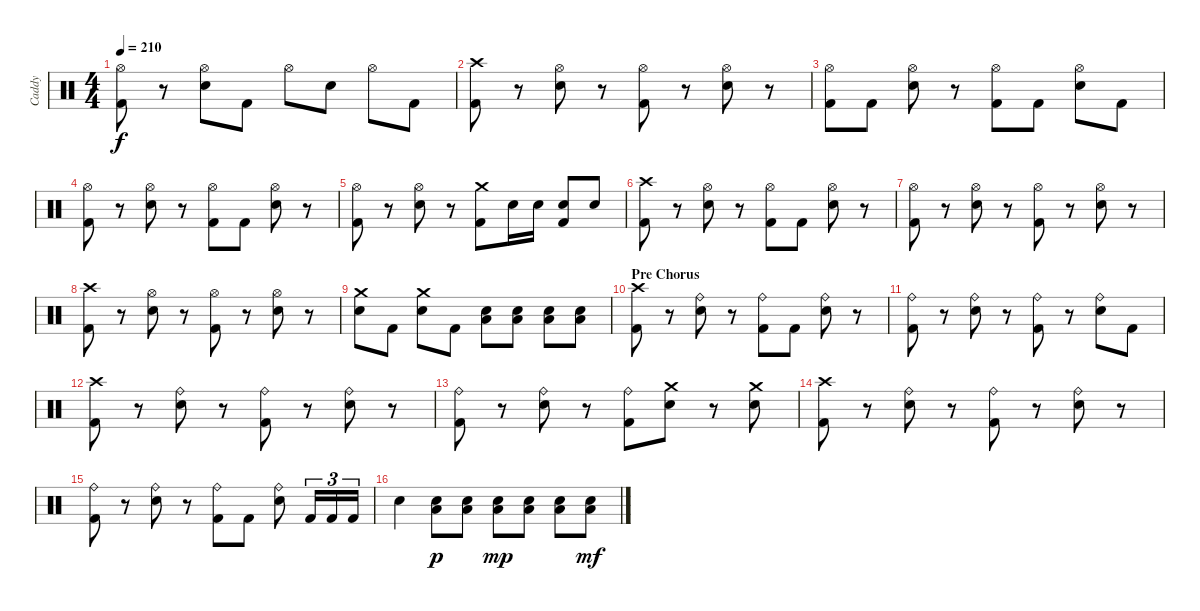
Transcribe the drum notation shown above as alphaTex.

\track ("Caddy" "Caddy") {instrument percussion}
\staff {score}
\articulation defaults
\ts (4 4)
\tempo 210
\clef neutral
\ks c
("Hi-Hat (open)" "Kick (hit) 2").8{dy f} r.8 ("Hi-Hat (open)" "Electric Snare (hit)").8 "Kick (hit) 2".8 "Hi-Hat (open)".8 "Electric Snare (hit)".8 "Hi-Hat (open)".8 "Kick (hit) 2".8 |
("Crash high (hit)" "Kick (hit) 2").8 r.8 ("Hi-Hat (open)" "Electric Snare (hit)").8 r.8 ("Hi-Hat (open)" "Kick (hit) 2").8 r.8 ("Hi-Hat (open)" "Electric Snare (hit)").8 r.8 |
("Hi-Hat (open)" "Kick (hit) 2").8 "Kick (hit) 2".8 ("Hi-Hat (open)" "Electric Snare (hit)").8 r.8 ("Hi-Hat (open)" "Kick (hit) 2").8 "Kick (hit) 2".8 ("Hi-Hat (open)" "Electric Snare (hit)").8 "Kick (hit) 2".8 |
("Hi-Hat (open)" "Kick (hit) 2").8 r.8 ("Hi-Hat (open)" "Electric Snare (hit)").8 r.8 ("Hi-Hat (open)" "Kick (hit) 2").8 "Kick (hit) 2".8 ("Hi-Hat (open)" "Electric Snare (hit)").8 r.8 |
("Hi-Hat (open)" "Kick (hit) 2").8 r.8 ("Hi-Hat (open)" "Electric Snare (hit)").8 r.8 ("Crash medium (hit)" "Kick (hit) 2").8 "Electric Snare (hit)".16 "Electric Snare (hit)".16 ("Electric Snare (hit)" "Kick (hit) 2").8 "Electric Snare (hit)".8 |
("Crash high (hit)" "Kick (hit) 2").8 r.8 ("Hi-Hat (open)" "Electric Snare (hit)").8 r.8 ("Hi-Hat (open)" "Kick (hit) 2").8 "Kick (hit) 2".8 ("Hi-Hat (open)" "Electric Snare (hit)").8 r.8 |
("Hi-Hat (open)" "Kick (hit) 2").8 r.8 ("Hi-Hat (open)" "Electric Snare (hit)").8 r.8 ("Hi-Hat (open)" "Kick (hit) 2").8 r.8 ("Hi-Hat (open)" "Electric Snare (hit)").8 r.8 |
("Crash high (hit)" "Kick (hit) 2").8 r.8 ("Hi-Hat (open)" "Electric Snare (hit)").8 r.8 ("Hi-Hat (open)" "Kick (hit) 2").8 r.8 ("Hi-Hat (open)" "Electric Snare (hit)").8 r.8 |
("Crash medium (hit)" "Electric Snare (hit)").8 "Kick (hit) 2".8 ("Crash medium (hit)" "Electric Snare (hit)").8 "Kick (hit) 2".8 ("Electric Snare (hit)" "Low Floor Tom (hit)").8 ("Electric Snare (hit)" "Low Floor Tom (hit)").8 ("Electric Snare (hit)" "Low Floor Tom (hit)").8 ("Electric Snare (hit)" "Low Floor Tom (hit)").8 |
\section ("" "Pre Chorus")
("Crash high (hit)" "Kick (hit) 2").8 r.8 ("Ride (bell)" "Electric Snare (hit)").8 r.8 ("Ride (bell)" "Kick (hit) 2").8 "Kick (hit) 2".8 ("Ride (bell)" "Electric Snare (hit)").8 r.8 |
("Ride (bell)" "Kick (hit) 2").8 r.8 ("Ride (bell)" "Electric Snare (hit)").8 r.8 ("Ride (bell)" "Kick (hit) 2").8 r.8 ("Ride (bell)" "Electric Snare (hit)").8 "Kick (hit) 2".8 |
("Crash high (hit)" "Kick (hit) 2").8 r.8 ("Ride (bell)" "Electric Snare (hit)").8 r.8 ("Ride (bell)" "Kick (hit) 2").8 r.8 ("Ride (bell)" "Electric Snare (hit)").8 r.8 |
("Ride (bell)" "Kick (hit) 2").8 r.8 ("Ride (bell)" "Electric Snare (hit)").8 r.8 ("Ride (bell)" "Kick (hit) 2").8 ("Crash medium (hit)" "Electric Snare (hit)").8 r.8 ("Crash medium (hit)" "Electric Snare (hit)").8 |
("Crash high (hit)" "Kick (hit) 2").8 r.8 ("Ride (bell)" "Electric Snare (hit)").8 r.8 ("Ride (bell)" "Kick (hit) 2").8 r.8 ("Ride (bell)" "Electric Snare (hit)").8 r.8 |
("Ride (bell)" "Kick (hit) 2").8 r.8 ("Ride (bell)" "Electric Snare (hit)").8 r.8 ("Ride (bell)" "Kick (hit) 2").8 "Kick (hit) 2".8 ("Ride (bell)" "Electric Snare (hit)").8 "Kick (hit) 2".16{tu (3 2)} "Kick (hit) 2".16{tu (3 2)} "Kick (hit) 2".16{tu (3 2)} |
"Electric Snare (hit)".4 ("Electric Snare (hit)" "Low Floor Tom (hit)").8{dy p} ("Electric Snare (hit)" "Low Floor Tom (hit)").8 ("Electric Snare (hit)" "Low Floor Tom (hit)").8{dy mp} ("Electric Snare (hit)" "Low Floor Tom (hit)").8 ("Electric Snare (hit)" "Low Floor Tom (hit)").8 ("Electric Snare (hit)" "Low Floor Tom (hit)").8{dy mf}
